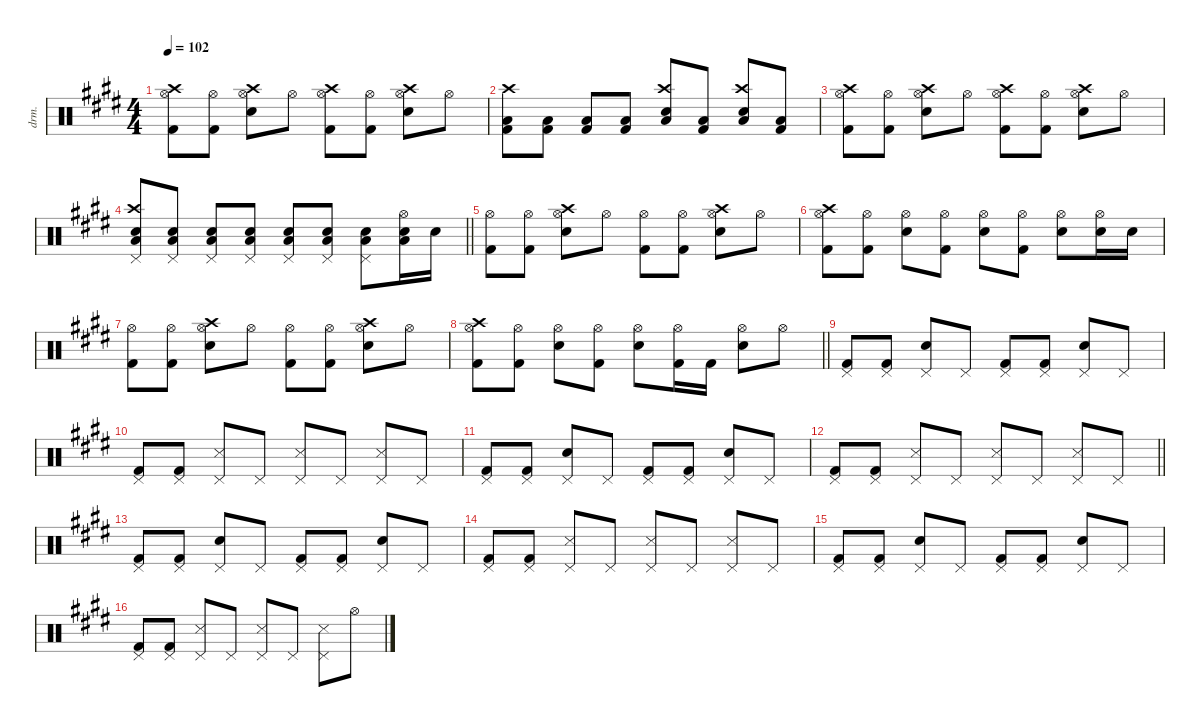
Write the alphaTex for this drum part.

\defaultSystemsLayout 4
\hideDynamics
\bracketExtendMode nobrackets
\otherSystemsTrackNameOrientation horizontal
\track ("Percussion" "drm.") {instrument percussion}
\staff {score}
\articulation defaults
\ts (4 4)
\tempo 102
\clef neutral
\ks c#minor
("Kick (hit) 2"{acc forcenatural} "Hi-Hat (open)"{acc forcenatural} "Crash high (hit)"{acc forcenatural}).8{dy f beam Down} ("Kick (hit) 2"{acc forcenatural} "Hi-Hat (open)"{acc forcenatural}).8{beam Down} ("Snare (hit) 2"{acc forcenatural} "Hi-Hat (open)"{acc forcenatural} "Crash high (hit)"{acc forcenatural}).8{beam Down} "Hi-Hat (open)"{acc forcenatural}.8{beam Down} ("Kick (hit) 2"{acc forcenatural} "Hi-Hat (open)"{acc forcenatural} "Crash high (hit)"{acc forcenatural}).8{beam Down} ("Kick (hit) 2"{acc forcenatural} "Hi-Hat (open)"{acc forcenatural}).8{beam Down} ("Snare (hit) 2"{acc forcenatural} "Hi-Hat (open)"{acc forcenatural} "Crash high (hit)"{acc forcenatural}).8{beam Down} "Hi-Hat (open)"{acc forcenatural}.8{beam Down} |
("Kick (hit) 2"{acc forcenatural} "Low Tom (hit)"{acc forcenatural} "Crash high (hit)"{acc forcenatural}).8{beam Down} ("Kick (hit) 2"{acc forcenatural} "Low Tom (hit)"{acc forcenatural}).8{beam Down} ("Kick (hit) 2"{acc forcenatural} "Low Tom (hit)"{acc forcenatural}).8{beam Up} ("Kick (hit) 2"{acc forcenatural} "Low Tom (hit)"{acc forcenatural}).8{beam Up} ("Snare (hit) 2"{acc forcenatural} "Low Tom (hit)"{acc forcenatural} "Crash high (hit)"{acc forcenatural}).8{beam Up} ("Kick (hit) 2"{acc forcenatural} "Low Tom (hit)"{acc forcenatural}).8{beam Up} ("Snare (hit) 2"{acc forcenatural} "Low Tom (hit)"{acc forcenatural} "Crash high (hit)"{acc forcenatural}).8{beam Up} ("Kick (hit) 2"{acc forcenatural} "Low Tom (hit)"{acc forcenatural}).8{beam Up} |
("Kick (hit) 2"{acc forcenatural} "Hi-Hat (open)"{acc forcenatural} "Crash high (hit)"{acc forcenatural}).8{beam Down} ("Kick (hit) 2"{acc forcenatural} "Hi-Hat (open)"{acc forcenatural}).8{beam Down} ("Snare (hit) 2"{acc forcenatural} "Hi-Hat (open)"{acc forcenatural} "Crash high (hit)"{acc forcenatural}).8{beam Down} "Hi-Hat (open)"{acc forcenatural}.8{beam Down} ("Kick (hit) 2"{acc forcenatural} "Hi-Hat (open)"{acc forcenatural} "Crash high (hit)"{acc forcenatural}).8{beam Down} ("Kick (hit) 2"{acc forcenatural} "Hi-Hat (open)"{acc forcenatural}).8{beam Down} ("Snare (hit) 2"{acc forcenatural} "Hi-Hat (open)"{acc forcenatural} "Crash high (hit)"{acc forcenatural}).8{beam Down} "Hi-Hat (open)"{acc forcenatural}.8{beam Down} |
\barLineRight lightlight
("Snare (hit) 2"{acc forcenatural} "Low Tom (hit)"{acc forcenatural} "Crash high (hit)"{acc forcenatural} "Pedal Hi-Hat (hit)"{acc forcenatural}).8{dy mp beam Up} ("Snare (hit) 2"{acc forcenatural} "Low Tom (hit)"{acc forcenatural} "Pedal Hi-Hat (hit)"{acc forcenatural}).8{beam Up} ("Snare (hit) 2"{acc forcenatural} "Low Tom (hit)"{acc forcenatural} "Pedal Hi-Hat (hit)"{acc forcenatural}).8{dy mf beam Up} ("Snare (hit) 2"{acc forcenatural} "Low Tom (hit)"{acc forcenatural} "Pedal Hi-Hat (hit)"{acc forcenatural}).8{beam Up} ("Snare (hit) 2"{acc forcenatural} "Low Tom (hit)"{acc forcenatural} "Pedal Hi-Hat (hit)"{acc forcenatural}).8{dy f beam Up} ("Snare (hit) 2"{acc forcenatural} "Low Tom (hit)"{acc forcenatural} "Pedal Hi-Hat (hit)"{acc forcenatural}).8{beam Up} ("Snare (hit) 2"{acc forcenatural} "Low Tom (hit)"{acc forcenatural} "Pedal Hi-Hat (hit)"{acc forcenatural}).8{beam Down} ("Snare (hit) 2"{acc forcenatural} "Low Tom (hit)"{acc forcenatural} "Hi-Hat (open)"{acc forcenatural}).16{beam Down} "Snare (hit) 2"{acc forcenatural}.16{beam Down} |
("Kick (hit) 2"{acc forcenatural} "Hi-Hat (open)"{acc forcenatural}).8{beam Down} ("Kick (hit) 2"{acc forcenatural} "Hi-Hat (open)"{acc forcenatural}).8{beam Down} ("Snare (hit) 2"{acc forcenatural} "Hi-Hat (open)"{acc forcenatural} "Crash high (hit)"{acc forcenatural}).8{beam Down} "Hi-Hat (open)"{acc forcenatural}.8{beam Down} ("Kick (hit) 2"{acc forcenatural} "Hi-Hat (open)"{acc forcenatural}).8{beam Down} ("Kick (hit) 2"{acc forcenatural} "Hi-Hat (open)"{acc forcenatural}).8{beam Down} ("Snare (hit) 2"{acc forcenatural} "Hi-Hat (open)"{acc forcenatural} "Crash high (hit)"{acc forcenatural}).8{beam Down} "Hi-Hat (open)"{acc forcenatural}.8{beam Down} |
("Kick (hit) 2"{acc forcenatural} "Hi-Hat (open)"{acc forcenatural} "Crash high (hit)"{acc forcenatural}).8{beam Down} ("Kick (hit) 2"{acc forcenatural} "Hi-Hat (open)"{acc forcenatural}).8{beam Down} ("Snare (hit) 2"{acc forcenatural} "Hi-Hat (open)"{acc forcenatural}).8{beam Down} ("Kick (hit) 2"{acc forcenatural} "Hi-Hat (open)"{acc forcenatural}).8{beam Down} ("Snare (hit) 2"{acc forcenatural} "Hi-Hat (open)"{acc forcenatural}).8{beam Down} ("Kick (hit) 2"{acc forcenatural} "Hi-Hat (open)"{acc forcenatural}).8{beam Down} ("Snare (hit) 2"{acc forcenatural} "Hi-Hat (open)"{acc forcenatural}).8{beam Down} ("Snare (hit) 2"{acc forcenatural} "Hi-Hat (open)"{acc forcenatural}).16{beam Down} "Snare (hit) 2"{acc forcenatural}.16{beam Down} |
("Kick (hit) 2"{acc forcenatural} "Hi-Hat (open)"{acc forcenatural}).8{beam Down} ("Kick (hit) 2"{acc forcenatural} "Hi-Hat (open)"{acc forcenatural}).8{beam Down} ("Snare (hit) 2"{acc forcenatural} "Hi-Hat (open)"{acc forcenatural} "Crash high (hit)"{acc forcenatural}).8{beam Down} "Hi-Hat (open)"{acc forcenatural}.8{beam Down} ("Kick (hit) 2"{acc forcenatural} "Hi-Hat (open)"{acc forcenatural}).8{beam Down} ("Kick (hit) 2"{acc forcenatural} "Hi-Hat (open)"{acc forcenatural}).8{beam Down} ("Snare (hit) 2"{acc forcenatural} "Hi-Hat (open)"{acc forcenatural} "Crash high (hit)"{acc forcenatural}).8{beam Down} "Hi-Hat (open)"{acc forcenatural}.8{beam Down} |
\barLineRight lightlight
("Kick (hit) 2"{acc forcenatural} "Hi-Hat (open)"{acc forcenatural} "Crash high (hit)"{acc forcenatural}).8{beam Down} ("Kick (hit) 2"{acc forcenatural} "Hi-Hat (open)"{acc forcenatural}).8{beam Down} ("Snare (hit) 2"{acc forcenatural} "Hi-Hat (open)"{acc forcenatural}).8{beam Down} ("Kick (hit) 2"{acc forcenatural} "Hi-Hat (open)"{acc forcenatural}).8{beam Down} ("Snare (hit) 2"{acc forcenatural} "Hi-Hat (open)"{acc forcenatural}).8{beam Down} ("Kick (hit) 2"{acc forcenatural} "Hi-Hat (open)"{acc forcenatural}).16{beam Down} "Kick (hit) 2"{acc forcenatural}.16{beam Down} ("Snare (hit) 2"{acc forcenatural} "Hi-Hat (open)"{acc forcenatural}).8{beam Down} "Hi-Hat (open)"{acc forcenatural}.8{beam Down} |
("Kick (hit) 2"{acc forcenatural} "Pedal Hi-Hat (hit)"{acc forcenatural}).8{beam Up} ("Kick (hit) 2"{acc forcenatural} "Pedal Hi-Hat (hit)"{acc forcenatural}).8{beam Up} ("Snare (hit) 2"{acc forcenatural} "Pedal Hi-Hat (hit)"{acc forcenatural}).8{beam Up} "Pedal Hi-Hat (hit)"{acc forcenatural}.8{beam Up} ("Kick (hit) 2"{acc forcenatural} "Pedal Hi-Hat (hit)"{acc forcenatural}).8{beam Up} ("Kick (hit) 2"{acc forcenatural} "Pedal Hi-Hat (hit)"{acc forcenatural}).8{beam Up} ("Snare (hit) 2"{acc forcenatural} "Pedal Hi-Hat (hit)"{acc forcenatural}).8{beam Up} "Pedal Hi-Hat (hit)"{acc forcenatural}.8{beam Up} |
("Kick (hit) 2"{acc forcenatural} "Pedal Hi-Hat (hit)"{acc forcenatural}).8{beam Up} ("Kick (hit) 2"{acc forcenatural} "Pedal Hi-Hat (hit)"{acc forcenatural}).8{beam Up} ("Metronome (hit)"{acc forcenatural} "Pedal Hi-Hat (hit)"{acc forcenatural}).8{beam Up} "Pedal Hi-Hat (hit)"{acc forcenatural}.8{beam Up} ("Metronome (hit)"{acc forcenatural} "Pedal Hi-Hat (hit)"{acc forcenatural}).8{beam Up} "Pedal Hi-Hat (hit)"{acc forcenatural}.8{beam Up} ("Metronome (hit)"{acc forcenatural} "Pedal Hi-Hat (hit)"{acc forcenatural}).8{beam Up} "Pedal Hi-Hat (hit)"{acc forcenatural}.8{beam Up} |
("Kick (hit) 2"{acc forcenatural} "Pedal Hi-Hat (hit)"{acc forcenatural}).8{beam Up} ("Kick (hit) 2"{acc forcenatural} "Pedal Hi-Hat (hit)"{acc forcenatural}).8{beam Up} ("Snare (hit) 2"{acc forcenatural} "Pedal Hi-Hat (hit)"{acc forcenatural}).8{beam Up} "Pedal Hi-Hat (hit)"{acc forcenatural}.8{beam Up} ("Kick (hit) 2"{acc forcenatural} "Pedal Hi-Hat (hit)"{acc forcenatural}).8{beam Up} ("Kick (hit) 2"{acc forcenatural} "Pedal Hi-Hat (hit)"{acc forcenatural}).8{beam Up} ("Snare (hit) 2"{acc forcenatural} "Pedal Hi-Hat (hit)"{acc forcenatural}).8{beam Up} "Pedal Hi-Hat (hit)"{acc forcenatural}.8{beam Up} |
\barLineRight lightlight
("Kick (hit) 2"{acc forcenatural} "Pedal Hi-Hat (hit)"{acc forcenatural}).8{beam Up} ("Kick (hit) 2"{acc forcenatural} "Pedal Hi-Hat (hit)"{acc forcenatural}).8{beam Up} ("Metronome (hit)"{acc forcenatural} "Pedal Hi-Hat (hit)"{acc forcenatural}).8{beam Up} "Pedal Hi-Hat (hit)"{acc forcenatural}.8{beam Up} ("Metronome (hit)"{acc forcenatural} "Pedal Hi-Hat (hit)"{acc forcenatural}).8{beam Up} "Pedal Hi-Hat (hit)"{acc forcenatural}.8{beam Up} ("Metronome (hit)"{acc forcenatural} "Pedal Hi-Hat (hit)"{acc forcenatural}).8{beam Up} "Pedal Hi-Hat (hit)"{acc forcenatural}.8{beam Up} |
("Kick (hit) 2"{acc forcenatural} "Pedal Hi-Hat (hit)"{acc forcenatural}).8{beam Up} ("Kick (hit) 2"{acc forcenatural} "Pedal Hi-Hat (hit)"{acc forcenatural}).8{beam Up} ("Snare (hit) 2"{acc forcenatural} "Pedal Hi-Hat (hit)"{acc forcenatural}).8{beam Up} "Pedal Hi-Hat (hit)"{acc forcenatural}.8{beam Up} ("Kick (hit) 2"{acc forcenatural} "Pedal Hi-Hat (hit)"{acc forcenatural}).8{beam Up} ("Kick (hit) 2"{acc forcenatural} "Pedal Hi-Hat (hit)"{acc forcenatural}).8{beam Up} ("Snare (hit) 2"{acc forcenatural} "Pedal Hi-Hat (hit)"{acc forcenatural}).8{beam Up} "Pedal Hi-Hat (hit)"{acc forcenatural}.8{beam Up} |
("Kick (hit) 2"{acc forcenatural} "Pedal Hi-Hat (hit)"{acc forcenatural}).8{beam Up} ("Kick (hit) 2"{acc forcenatural} "Pedal Hi-Hat (hit)"{acc forcenatural}).8{beam Up} ("Metronome (hit)"{acc forcenatural} "Pedal Hi-Hat (hit)"{acc forcenatural}).8{beam Up} "Pedal Hi-Hat (hit)"{acc forcenatural}.8{beam Up} ("Metronome (hit)"{acc forcenatural} "Pedal Hi-Hat (hit)"{acc forcenatural}).8{beam Up} "Pedal Hi-Hat (hit)"{acc forcenatural}.8{beam Up} ("Metronome (hit)"{acc forcenatural} "Pedal Hi-Hat (hit)"{acc forcenatural}).8{beam Up} "Pedal Hi-Hat (hit)"{acc forcenatural}.8{beam Up} |
("Kick (hit) 2"{acc forcenatural} "Pedal Hi-Hat (hit)"{acc forcenatural}).8{beam Up} ("Kick (hit) 2"{acc forcenatural} "Pedal Hi-Hat (hit)"{acc forcenatural}).8{beam Up} ("Snare (hit) 2"{acc forcenatural} "Pedal Hi-Hat (hit)"{acc forcenatural}).8{beam Up} "Pedal Hi-Hat (hit)"{acc forcenatural}.8{beam Up} ("Kick (hit) 2"{acc forcenatural} "Pedal Hi-Hat (hit)"{acc forcenatural}).8{beam Up} ("Kick (hit) 2"{acc forcenatural} "Pedal Hi-Hat (hit)"{acc forcenatural}).8{beam Up} ("Snare (hit) 2"{acc forcenatural} "Pedal Hi-Hat (hit)"{acc forcenatural}).8{beam Up} "Pedal Hi-Hat (hit)"{acc forcenatural}.8{beam Up} |
("Kick (hit) 2"{acc forcenatural} "Pedal Hi-Hat (hit)"{acc forcenatural}).8{beam Up} ("Kick (hit) 2"{acc forcenatural} "Pedal Hi-Hat (hit)"{acc forcenatural}).8{beam Up} ("Metronome (hit)"{acc forcenatural} "Pedal Hi-Hat (hit)"{acc forcenatural}).8{beam Up} "Pedal Hi-Hat (hit)"{acc forcenatural}.8{beam Up} ("Metronome (hit)"{acc forcenatural} "Pedal Hi-Hat (hit)"{acc forcenatural}).8{beam Up} "Pedal Hi-Hat (hit)"{acc forcenatural}.8{beam Up} ("Metronome (hit)"{acc forcenatural} "Pedal Hi-Hat (hit)"{acc forcenatural}).8{beam Down} "Hi-Hat (open)"{acc forcenatural}.8{beam Down}
